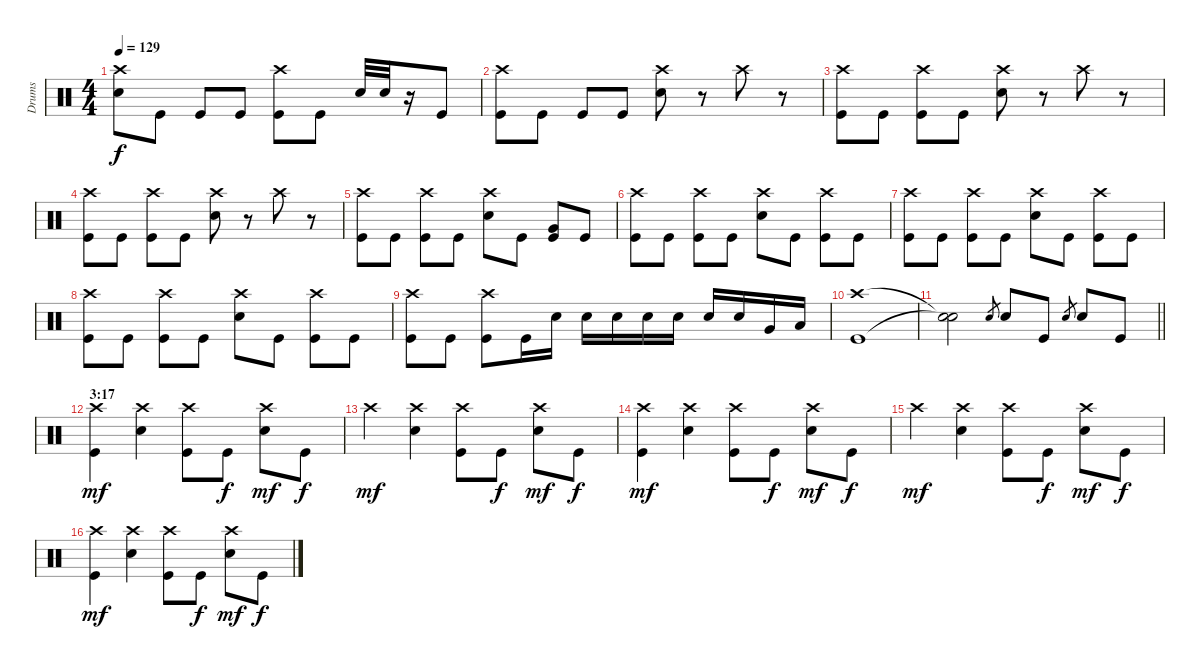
\track ("Drums" "Drums") {instrument percussion}
\staff {score}
\articulation defaults
\ts (4 4)
\tempo 129
\clef neutral
\ks c
("Crash high (hit)" "Snare (hit) 2").8{dy f} "Kick (hit)".8 "Kick (hit)".8 "Kick (hit)".8 ("Crash high (hit)" "Kick (hit)").8 "Kick (hit)".8 "Snare (hit) 2".32 "Snare (hit) 2".32 r.16 "Kick (hit)".8 |
("Crash high (hit)" "Kick (hit)").8 "Kick (hit)".8 "Kick (hit)".8 "Kick (hit)".8 ("Crash high (hit)" "Snare (hit) 2").8 r.8 "Crash high (hit)".8 r.8 |
("Crash high (hit)" "Kick (hit)").8 "Kick (hit)".8 ("Crash high (hit)" "Kick (hit)").8 "Kick (hit)".8 ("Crash high (hit)" "Snare (hit) 2").8 r.8 "Crash high (hit)".8 r.8 |
("Crash high (hit)" "Kick (hit)").8 "Kick (hit)".8 ("Crash high (hit)" "Kick (hit)").8 "Kick (hit)".8 ("Crash high (hit)" "Snare (hit) 2").8 r.8 "Crash high (hit)".8 r.8 |
("Crash high (hit)" "Kick (hit)").8 "Kick (hit)".8 ("Crash high (hit)" "Kick (hit)").8 "Kick (hit)".8 ("Crash high (hit)" "Snare (hit) 2").8 "Kick (hit)".8 ("Very Low Tom (hit)" "Kick (hit)").8 "Kick (hit)".8 |
("Crash high (hit)" "Kick (hit)").8 "Kick (hit)".8 ("Crash high (hit)" "Kick (hit)").8 "Kick (hit)".8 ("Crash high (hit)" "Snare (hit) 2").8 "Kick (hit)".8 ("Crash high (hit)" "Kick (hit)").8 "Kick (hit)".8 |
("Crash high (hit)" "Kick (hit)").8 "Kick (hit)".8 ("Crash high (hit)" "Kick (hit)").8 "Kick (hit)".8 ("Crash high (hit)" "Snare (hit) 2").8 "Kick (hit)".8 ("Crash high (hit)" "Kick (hit)").8 "Kick (hit)".8 |
("Crash high (hit)" "Kick (hit)").8 "Kick (hit)".8 ("Crash high (hit)" "Kick (hit)").8 "Kick (hit)".8 ("Crash high (hit)" "Snare (hit) 2").8 "Kick (hit)".8 ("Crash high (hit)" "Kick (hit)").8 "Kick (hit)".8 |
("Crash high (hit)" "Kick (hit)").8 "Kick (hit)".8 ("Crash high (hit)" "Kick (hit)").8 "Kick (hit)".16 "Snare (hit) 2".16 "Snare (hit) 2".16 "Snare (hit) 2".16 "Snare (hit) 2".16 "Snare (hit) 2".16 "Snare (hit) 2".16 "Snare (hit) 2".16 "Very Low Tom (hit)".16 "Low Floor Tom (hit)".16 |
("Crash high (hit)" "Kick (hit)").1 |
\barLineRight lightlight
("Snare (hit)"{t} "Snare (hit)"{t}).2 "Snare (hit) 2".8{gr} "Snare (hit) 2".8 "Kick (hit)".8 "Snare (hit) 2".8{gr} "Snare (hit) 2".8 "Kick (hit)".8 |
\section ("" "3:17")
("Crash high (hit)" "Kick (hit)").4{dy mf} ("Crash high (hit)" "Snare (hit) 2").4 ("Crash high (hit)" "Kick (hit)").8 "Kick (hit)".8{dy f} ("Crash high (hit)" "Snare (hit) 2").8{dy mf} "Kick (hit)".8{dy f} |
"Crash high (hit)".4{dy mf} ("Crash high (hit)" "Snare (hit) 2").4 ("Crash high (hit)" "Kick (hit)").8 "Kick (hit)".8{dy f} ("Crash high (hit)" "Snare (hit) 2").8{dy mf} "Kick (hit)".8{dy f} |
("Crash high (hit)" "Kick (hit)").4{dy mf} ("Crash high (hit)" "Snare (hit) 2").4 ("Crash high (hit)" "Kick (hit)").8 "Kick (hit)".8{dy f} ("Crash high (hit)" "Snare (hit) 2").8{dy mf} "Kick (hit)".8{dy f} |
"Crash high (hit)".4{dy mf} ("Crash high (hit)" "Snare (hit) 2").4 ("Crash high (hit)" "Kick (hit)").8 "Kick (hit)".8{dy f} ("Crash high (hit)" "Snare (hit) 2").8{dy mf} "Kick (hit)".8{dy f} |
("Crash high (hit)" "Kick (hit)").4{dy mf} ("Crash high (hit)" "Snare (hit) 2").4 ("Crash high (hit)" "Kick (hit)").8 "Kick (hit)".8{dy f} ("Crash high (hit)" "Snare (hit) 2").8{dy mf} "Kick (hit)".8{dy f}
